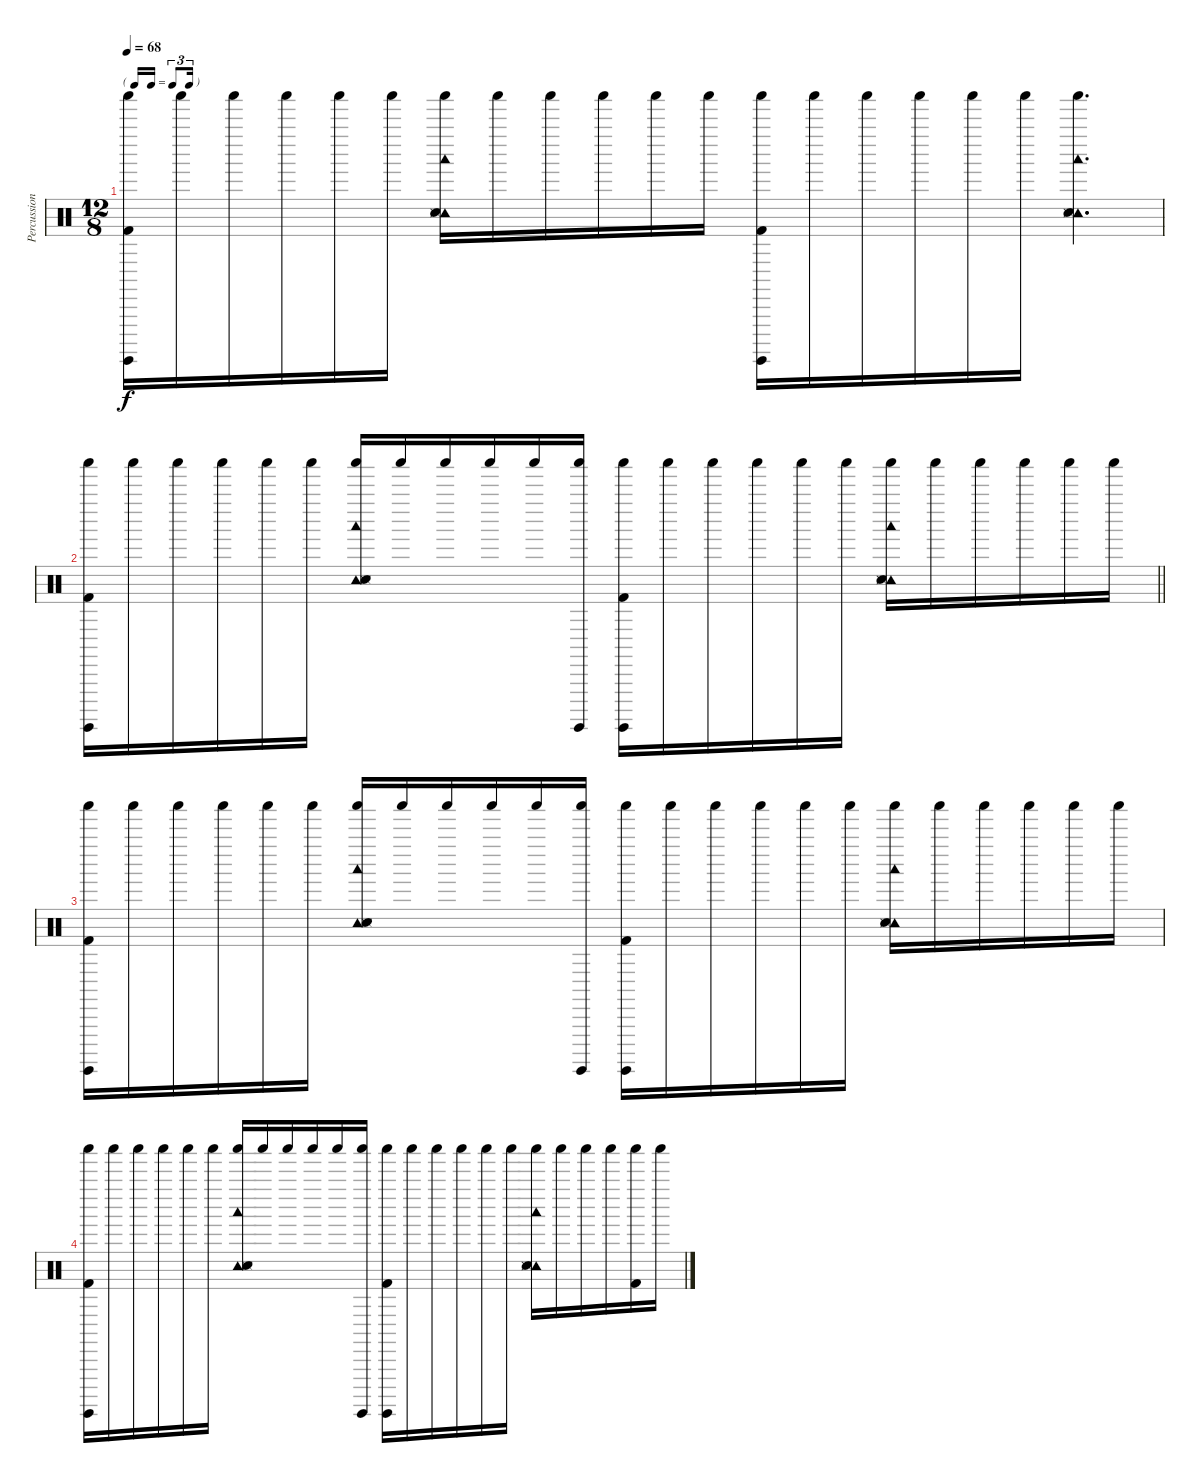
\track ("Percussion" "Percussion") {instrument percussion}
\staff {score}
\articulation defaults
\ts (12 8)
\tf triplet16th
\tempo 68
\clef neutral
\ks c
("Shaker (hit)" "Surdo (hit)" "Kick (hit) 2").16{dy f} "Shaker (hit)".16 "Shaker (hit)".16 "Shaker (hit)".16 "Shaker (hit)".16 "Shaker (hit)".16 ("Tambourine (hit)" "Shaker (hit)" "Hand Clap (hit)" "Woodblock low (hit)" "Snare (side stick) 3").16 "Shaker (hit)".16 "Shaker (hit)".16 "Shaker (hit)".16 "Shaker (hit)".16 "Shaker (hit)".16 ("Shaker (hit)" "Surdo (hit)" "Kick (hit) 2").16 "Shaker (hit)".16 "Shaker (hit)".16 "Shaker (hit)".16 "Shaker (hit)".16 "Shaker (hit)".16 ("Tambourine (hit)" "Shaker (hit)" "Hand Clap (hit)" "Woodblock low (hit)" "Snare (side stick) 3").4{d} |
\barLineRight lightlight
("Shaker (hit)" "Surdo (hit)" "Kick (hit) 2").16 "Shaker (hit)".16 "Shaker (hit)".16 "Shaker (hit)".16 "Shaker (hit)".16 "Shaker (hit)".16 ("Tambourine (hit)" "Shaker (hit)" "Hand Clap (hit)" "Woodblock low (hit)" "Snare (side stick) 3").16 "Shaker (hit)".16 "Shaker (hit)".16 "Shaker (hit)".16 "Shaker (hit)".16 ("Shaker (hit)" "Surdo (hit)").16 ("Shaker (hit)" "Surdo (hit)" "Kick (hit) 2").16 "Shaker (hit)".16 "Shaker (hit)".16 "Shaker (hit)".16 "Shaker (hit)".16 "Shaker (hit)".16 ("Tambourine (hit)" "Shaker (hit)" "Hand Clap (hit)" "Woodblock low (hit)" "Snare (side stick) 3").16 "Shaker (hit)".16 "Shaker (hit)".16 "Shaker (hit)".16 "Shaker (hit)".16 "Shaker (hit)".16 |
("Shaker (hit)" "Surdo (hit)" "Kick (hit) 2").16 "Shaker (hit)".16 "Shaker (hit)".16 "Shaker (hit)".16 "Shaker (hit)".16 "Shaker (hit)".16 ("Tambourine (hit)" "Shaker (hit)" "Hand Clap (hit)" "Woodblock low (hit)" "Snare (side stick) 3").16 "Shaker (hit)".16 "Shaker (hit)".16 "Shaker (hit)".16 "Shaker (hit)".16 ("Shaker (hit)" "Surdo (hit)").16 ("Shaker (hit)" "Surdo (hit)" "Kick (hit) 2").16 "Shaker (hit)".16 "Shaker (hit)".16 "Shaker (hit)".16 "Shaker (hit)".16 "Shaker (hit)".16 ("Tambourine (hit)" "Shaker (hit)" "Hand Clap (hit)" "Woodblock low (hit)" "Snare (side stick) 3").16 "Shaker (hit)".16 "Shaker (hit)".16 "Shaker (hit)".16 "Shaker (hit)".16 "Shaker (hit)".16 |
("Shaker (hit)" "Surdo (hit)" "Kick (hit) 2").16 "Shaker (hit)".16 "Shaker (hit)".16 "Shaker (hit)".16 "Shaker (hit)".16 "Shaker (hit)".16 ("Tambourine (hit)" "Shaker (hit)" "Hand Clap (hit)" "Woodblock low (hit)" "Snare (side stick) 3").16 "Shaker (hit)".16 "Shaker (hit)".16 "Shaker (hit)".16 "Shaker (hit)".16 ("Shaker (hit)" "Surdo (hit)").16 ("Shaker (hit)" "Surdo (hit)" "Kick (hit) 2").16 "Shaker (hit)".16 "Shaker (hit)".16 "Shaker (hit)".16 "Shaker (hit)".16 "Shaker (hit)".16 ("Tambourine (hit)" "Shaker (hit)" "Hand Clap (hit)" "Woodblock low (hit)" "Snare (side stick) 3").16 "Shaker (hit)".16 "Shaker (hit)".16 "Shaker (hit)".16 ("Shaker (hit)" "Kick (hit) 2").16 "Shaker (hit)".16
